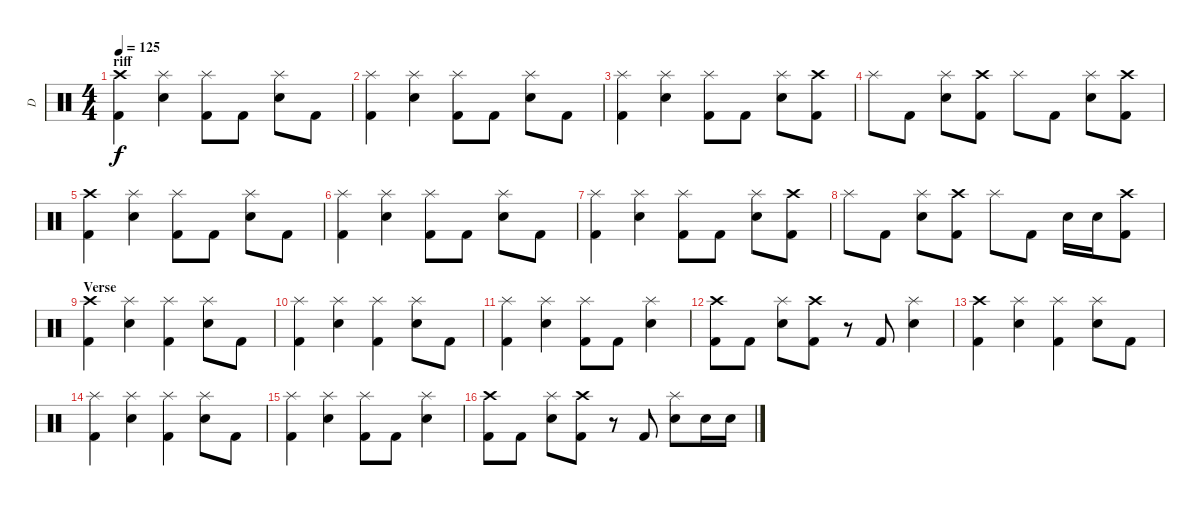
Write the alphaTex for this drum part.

\track ("D" "D") {instrument percussion}
\staff {score}
\articulation defaults
\ts (4 4)
\section ("" "riff")
\tempo 125
\clef neutral
\ks c
("Crash high (hit)" "Kick (hit) 2").4{dy f} ("Splash (hit)" "Electric Snare (hit)").4 ("Splash (hit)" "Kick (hit) 2").8 "Kick (hit) 2".8 ("Splash (hit)" "Electric Snare (hit)").8 "Kick (hit) 2".8 |
("Splash (hit)" "Kick (hit) 2").4 ("Splash (hit)" "Electric Snare (hit)").4 ("Splash (hit)" "Kick (hit) 2").8 "Kick (hit) 2".8 ("Splash (hit)" "Electric Snare (hit)").8 "Kick (hit) 2".8 |
("Splash (hit)" "Kick (hit) 2").4 ("Splash (hit)" "Electric Snare (hit)").4 ("Splash (hit)" "Kick (hit) 2").8 "Kick (hit) 2".8 ("Splash (hit)" "Electric Snare (hit)").8 ("Crash high (hit)" "Kick (hit) 2").8 |
"Splash (hit)".8 "Kick (hit) 2".8 ("Splash (hit)" "Electric Snare (hit)").8 ("Crash high (hit)" "Kick (hit) 2").8 "Splash (hit)".8 "Kick (hit) 2".8 ("Splash (hit)" "Electric Snare (hit)").8 ("Crash high (hit)" "Kick (hit) 2").8 |
("Crash high (hit)" "Kick (hit) 2").4 ("Splash (hit)" "Electric Snare (hit)").4 ("Splash (hit)" "Kick (hit) 2").8 "Kick (hit) 2".8 ("Splash (hit)" "Electric Snare (hit)").8 "Kick (hit) 2".8 |
("Splash (hit)" "Kick (hit) 2").4 ("Splash (hit)" "Electric Snare (hit)").4 ("Splash (hit)" "Kick (hit) 2").8 "Kick (hit) 2".8 ("Splash (hit)" "Electric Snare (hit)").8 "Kick (hit) 2".8 |
("Splash (hit)" "Kick (hit) 2").4 ("Splash (hit)" "Electric Snare (hit)").4 ("Splash (hit)" "Kick (hit) 2").8 "Kick (hit) 2".8 ("Splash (hit)" "Electric Snare (hit)").8 ("Crash high (hit)" "Kick (hit) 2").8 |
"Splash (hit)".8 "Kick (hit) 2".8 ("Splash (hit)" "Electric Snare (hit)").8 ("Crash high (hit)" "Kick (hit) 2").8 "Splash (hit)".8 "Kick (hit) 2".8 "Electric Snare (hit)".16 "Electric Snare (hit)".16 ("Crash high (hit)" "Kick (hit) 2").8 |
\section ("" "Verse")
("Crash high (hit)" "Kick (hit) 2").4 ("Splash (hit)" "Electric Snare (hit)").4 ("Splash (hit)" "Kick (hit) 2").4 ("Splash (hit)" "Electric Snare (hit)").8 "Kick (hit) 2".8 |
("Splash (hit)" "Kick (hit) 2").4 ("Splash (hit)" "Electric Snare (hit)").4 ("Splash (hit)" "Kick (hit) 2").4 ("Splash (hit)" "Electric Snare (hit)").8 "Kick (hit) 2".8 |
("Splash (hit)" "Kick (hit) 2").4 ("Splash (hit)" "Electric Snare (hit)").4 ("Splash (hit)" "Kick (hit) 2").8 "Kick (hit) 2".8 ("Splash (hit)" "Electric Snare (hit)").4 |
("Crash high (hit)" "Kick (hit) 2").8 "Kick (hit) 2".8 ("Splash (hit)" "Electric Snare (hit)").8 ("Crash high (hit)" "Kick (hit) 2").8 r.8 "Kick (hit) 2".8 ("Splash (hit)" "Electric Snare (hit)").4 |
("Crash high (hit)" "Kick (hit) 2").4 ("Splash (hit)" "Electric Snare (hit)").4 ("Splash (hit)" "Kick (hit) 2").4 ("Splash (hit)" "Electric Snare (hit)").8 "Kick (hit) 2".8 |
("Splash (hit)" "Kick (hit) 2").4 ("Splash (hit)" "Electric Snare (hit)").4 ("Splash (hit)" "Kick (hit) 2").4 ("Splash (hit)" "Electric Snare (hit)").8 "Kick (hit) 2".8 |
("Splash (hit)" "Kick (hit) 2").4 ("Splash (hit)" "Electric Snare (hit)").4 ("Splash (hit)" "Kick (hit) 2").8 "Kick (hit) 2".8 ("Splash (hit)" "Electric Snare (hit)").4 |
("Crash high (hit)" "Kick (hit) 2").8 "Kick (hit) 2".8 ("Splash (hit)" "Electric Snare (hit)").8 ("Crash high (hit)" "Kick (hit) 2").8 r.8 "Kick (hit) 2".8 ("Splash (hit)" "Electric Snare (hit)").8 "Electric Snare (hit)".16 "Electric Snare (hit)".16
